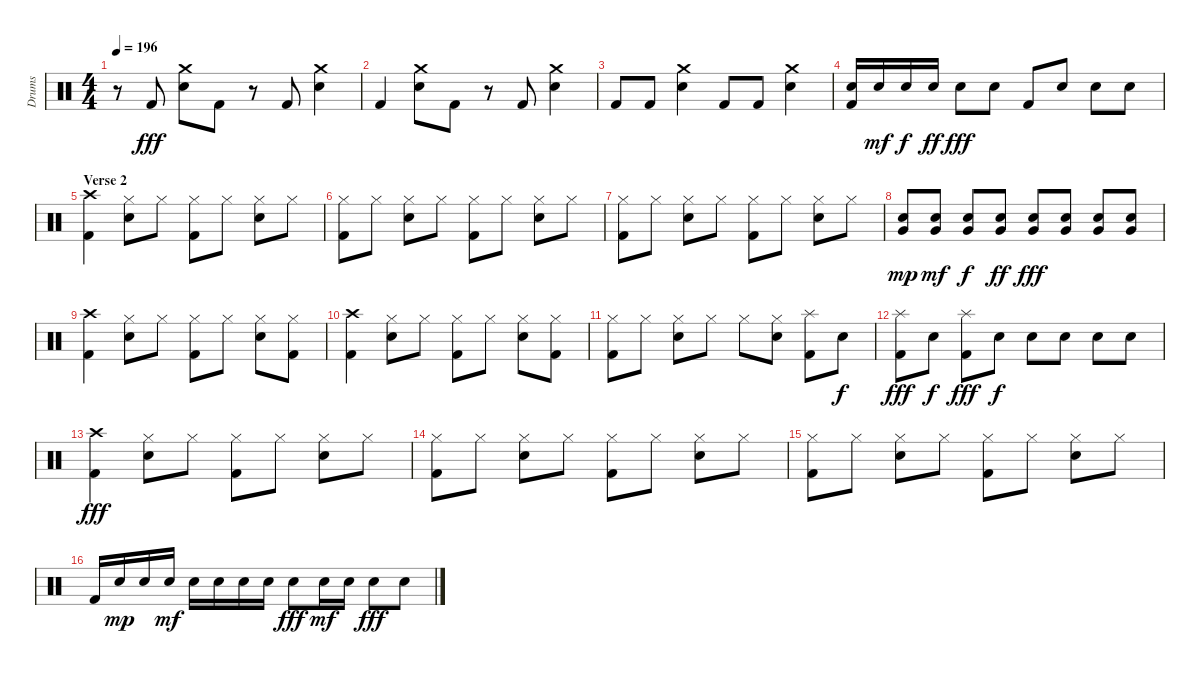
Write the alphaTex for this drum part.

\track ("Drums" "Drums") {instrument percussion}
\staff {score}
\articulation defaults
\ts (4 4)
\tempo 196
\clef neutral
\ks c
r.8{dy fff} "Kick (hit) 2".8 ("Crash medium (hit)" "Snare (hit) 2").8 "Kick (hit) 2".8 r.8 "Kick (hit) 2".8 ("Crash medium (hit)" "Snare (hit) 2").4 |
"Kick (hit) 2".4 ("Crash medium (hit)" "Snare (hit) 2").8 "Kick (hit) 2".8 r.8 "Kick (hit) 2".8 ("Crash medium (hit)" "Snare (hit) 2").4 |
"Kick (hit) 2".8 "Kick (hit) 2".8 ("Crash medium (hit)" "Snare (hit) 2").4 "Kick (hit) 2".8 "Kick (hit) 2".8 ("Crash medium (hit)" "Snare (hit) 2").4 |
("Snare (hit) 2" "Kick (hit) 2").16 "Snare (hit) 2".16{dy mf} "Snare (hit) 2".16{dy f} "Snare (hit) 2".16{dy ff} "Snare (hit) 2".8{dy fff} "Snare (hit) 2".8 "Kick (hit) 2".8 "Snare (hit) 2".8 "Snare (hit) 2".8 "Snare (hit) 2".8 |
\section ("" "Verse 2")
("Crash high (hit)" "Kick (hit) 2").4 ("Hi-Hat (closed)" "Snare (hit) 2").8 "Hi-Hat (closed)".8 ("Hi-Hat (closed)" "Kick (hit) 2").8 "Hi-Hat (closed)".8 ("Hi-Hat (closed)" "Snare (hit) 2").8 "Hi-Hat (closed)".8 |
("Hi-Hat (closed)" "Kick (hit) 2").8 "Hi-Hat (closed)".8 ("Hi-Hat (closed)" "Snare (hit) 2").8 "Hi-Hat (closed)".8 ("Hi-Hat (closed)" "Kick (hit) 2").8 "Hi-Hat (closed)".8 ("Hi-Hat (closed)" "Snare (hit) 2").8 "Hi-Hat (closed)".8 |
("Hi-Hat (closed)" "Kick (hit) 2").8 "Hi-Hat (closed)".8 ("Hi-Hat (closed)" "Snare (hit) 2").8 "Hi-Hat (closed)".8 ("Hi-Hat (closed)" "Kick (hit) 2").8 "Hi-Hat (closed)".8 ("Hi-Hat (closed)" "Snare (hit) 2").8 "Hi-Hat (closed)".8 |
("Very Low Tom (hit)" "Snare (hit) 2").8{dy mp} ("Very Low Tom (hit)" "Snare (hit) 2").8{dy mf} ("Very Low Tom (hit)" "Snare (hit) 2").8{dy f} ("Very Low Tom (hit)" "Snare (hit) 2").8{dy ff} ("Very Low Tom (hit)" "Snare (hit) 2").8{dy fff} ("Very Low Tom (hit)" "Snare (hit) 2").8 ("Very Low Tom (hit)" "Snare (hit) 2").8 ("Very Low Tom (hit)" "Snare (hit) 2").8 |
("Crash high (hit)" "Kick (hit) 2").4 ("Hi-Hat (closed)" "Snare (hit) 2").8 "Hi-Hat (closed)".8 ("Hi-Hat (closed)" "Kick (hit) 2").8 "Hi-Hat (closed)".8 ("Hi-Hat (closed)" "Snare (hit) 2").8 ("Hi-Hat (closed)" "Kick (hit) 2").8 |
("Crash high (hit)" "Kick (hit) 2").4 ("Hi-Hat (closed)" "Snare (hit) 2").8 "Hi-Hat (closed)".8 ("Hi-Hat (closed)" "Kick (hit) 2").8 "Hi-Hat (closed)".8 ("Hi-Hat (closed)" "Snare (hit) 2").8 ("Hi-Hat (closed)" "Kick (hit) 2").8 |
("Hi-Hat (closed)" "Kick (hit) 2").8 "Hi-Hat (closed)".8 ("Hi-Hat (closed)" "Snare (hit) 2").8 "Hi-Hat (closed)".8 "Hi-Hat (closed)".8 ("Hi-Hat (closed)" "Snare (hit) 2").8 ("Splash (hit)" "Kick (hit) 2").8 "Snare (hit) 2".8{dy f} |
("Splash (hit)" "Kick (hit) 2").8{dy fff} "Snare (hit) 2".8{dy f} ("Splash (hit)" "Kick (hit) 2").8{dy fff} "Snare (hit) 2".8{dy f} "Snare (hit) 2".8 "Snare (hit) 2".8 "Snare (hit) 2".8 "Snare (hit) 2".8 |
("Crash high (hit)" "Kick (hit) 2").4{dy fff} ("Hi-Hat (closed)" "Snare (hit) 2").8 "Hi-Hat (closed)".8 ("Hi-Hat (closed)" "Kick (hit) 2").8 "Hi-Hat (closed)".8 ("Hi-Hat (closed)" "Snare (hit) 2").8 "Hi-Hat (closed)".8 |
("Hi-Hat (closed)" "Kick (hit) 2").8 "Hi-Hat (closed)".8 ("Hi-Hat (closed)" "Snare (hit) 2").8 "Hi-Hat (closed)".8 ("Hi-Hat (closed)" "Kick (hit) 2").8 "Hi-Hat (closed)".8 ("Hi-Hat (closed)" "Snare (hit) 2").8 "Hi-Hat (closed)".8 |
("Hi-Hat (closed)" "Kick (hit) 2").8 "Hi-Hat (closed)".8 ("Hi-Hat (closed)" "Snare (hit) 2").8 "Hi-Hat (closed)".8 ("Hi-Hat (closed)" "Kick (hit) 2").8 "Hi-Hat (closed)".8 ("Hi-Hat (closed)" "Snare (hit) 2").8 "Hi-Hat (closed)".8 |
"Kick (hit) 2".16 "Snare (hit) 2".16{dy mp} "Snare (hit) 2".16 "Snare (hit) 2".16{dy mf} "Snare (hit) 2".16 "Snare (hit) 2".16 "Snare (hit) 2".16 "Snare (hit) 2".16 "Snare (hit) 2".8{dy fff} "Snare (hit) 2".16{dy mf} "Snare (hit) 2".16 "Snare (hit) 2".8{dy fff} "Snare (hit) 2".8
